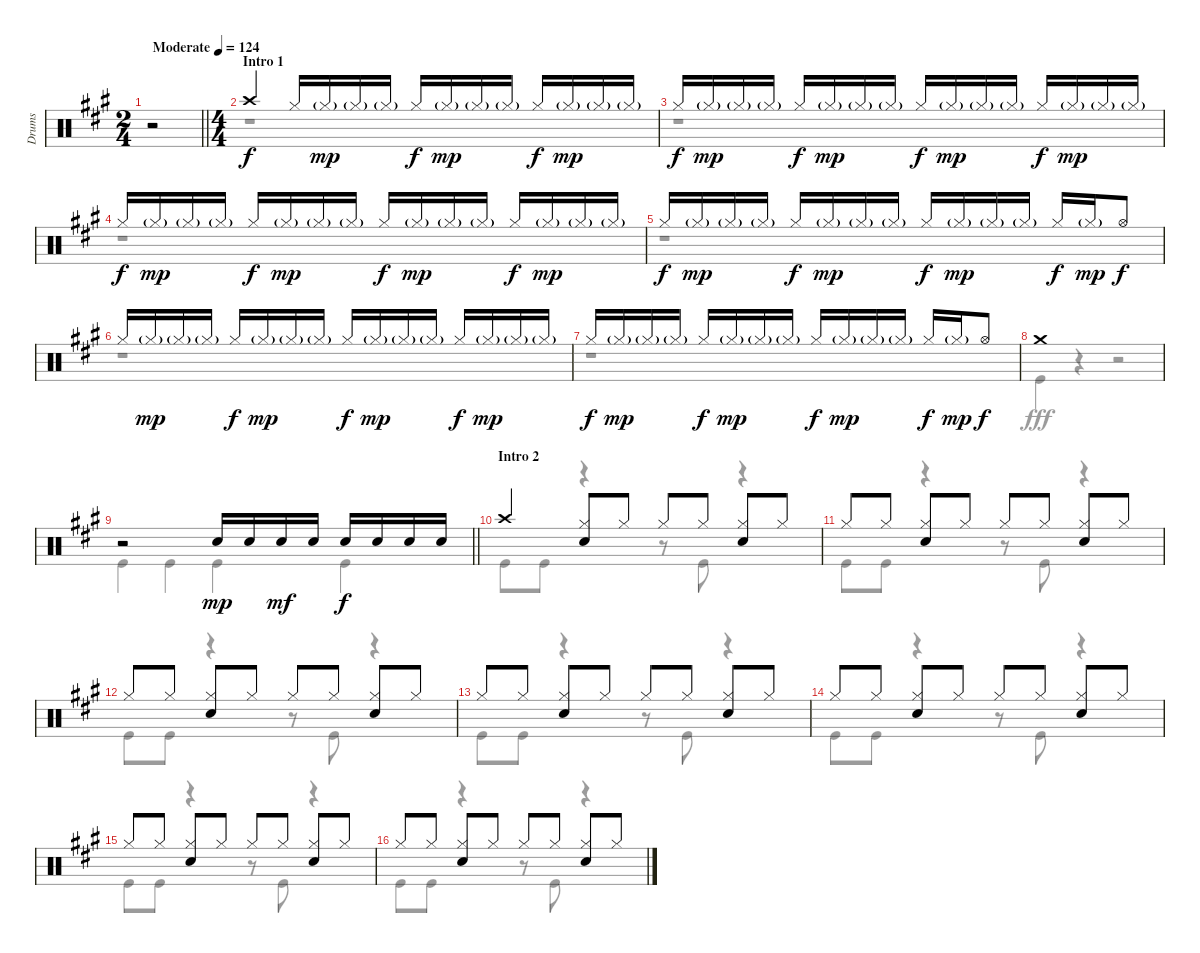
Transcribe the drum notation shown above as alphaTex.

\track ("Drums" "Drums") {instrument percussion}
\staff {score}
\articulation defaults
\voice
\ts (2 4)
\tempo (124 "Moderate")
\clef neutral
\barLineRight lightlight
\ks a
r.2{dy f} |
\ts (4 4)
\section ("" "Intro 1")
"Crash high (hit)".4 "Hi-Hat (closed)".16 "Hi-Hat (closed)"{g}.16{dy mp} "Hi-Hat (closed)"{g}.16 "Hi-Hat (closed)"{g}.16 "Hi-Hat (closed)".16{dy f} "Hi-Hat (closed)"{g}.16{dy mp} "Hi-Hat (closed)"{g}.16 "Hi-Hat (closed)"{g}.16 "Hi-Hat (closed)".16{dy f} "Hi-Hat (closed)"{g}.16{dy mp} "Hi-Hat (closed)"{g}.16 "Hi-Hat (closed)"{g}.16 |
"Hi-Hat (closed)".16{dy f} "Hi-Hat (closed)"{g}.16{dy mp} "Hi-Hat (closed)"{g}.16 "Hi-Hat (closed)"{g}.16 "Hi-Hat (closed)".16{dy f} "Hi-Hat (closed)"{g}.16{dy mp} "Hi-Hat (closed)"{g}.16 "Hi-Hat (closed)"{g}.16 "Hi-Hat (closed)".16{dy f} "Hi-Hat (closed)"{g}.16{dy mp} "Hi-Hat (closed)"{g}.16 "Hi-Hat (closed)"{g}.16 "Hi-Hat (closed)".16{dy f} "Hi-Hat (closed)"{g}.16{dy mp} "Hi-Hat (closed)"{g}.16 "Hi-Hat (closed)"{g}.16 |
"Hi-Hat (closed)".16{dy f} "Hi-Hat (closed)"{g}.16{dy mp} "Hi-Hat (closed)"{g}.16 "Hi-Hat (closed)"{g}.16 "Hi-Hat (closed)".16{dy f} "Hi-Hat (closed)"{g}.16{dy mp} "Hi-Hat (closed)"{g}.16 "Hi-Hat (closed)"{g}.16 "Hi-Hat (closed)".16{dy f} "Hi-Hat (closed)"{g}.16{dy mp} "Hi-Hat (closed)"{g}.16 "Hi-Hat (closed)"{g}.16 "Hi-Hat (closed)".16{dy f} "Hi-Hat (closed)"{g}.16{dy mp} "Hi-Hat (closed)"{g}.16 "Hi-Hat (closed)"{g}.16 |
"Hi-Hat (closed)".16{dy f} "Hi-Hat (closed)"{g}.16{dy mp} "Hi-Hat (closed)"{g}.16 "Hi-Hat (closed)"{g}.16 "Hi-Hat (closed)".16{dy f} "Hi-Hat (closed)"{g}.16{dy mp} "Hi-Hat (closed)"{g}.16 "Hi-Hat (closed)"{g}.16 "Hi-Hat (closed)".16{dy f} "Hi-Hat (closed)"{g}.16{dy mp} "Hi-Hat (closed)"{g}.16 "Hi-Hat (closed)"{g}.16 "Hi-Hat (closed)".16{dy f} "Hi-Hat (closed)"{g}.16{dy mp} "Hi-Hat (open)".8{dy f} |
"Hi-Hat (closed)".16 "Hi-Hat (closed)"{g}.16{dy mp} "Hi-Hat (closed)"{g}.16 "Hi-Hat (closed)"{g}.16 "Hi-Hat (closed)".16{dy f} "Hi-Hat (closed)"{g}.16{dy mp} "Hi-Hat (closed)"{g}.16 "Hi-Hat (closed)"{g}.16 "Hi-Hat (closed)".16{dy f} "Hi-Hat (closed)"{g}.16{dy mp} "Hi-Hat (closed)"{g}.16 "Hi-Hat (closed)"{g}.16 "Hi-Hat (closed)".16{dy f} "Hi-Hat (closed)"{g}.16{dy mp} "Hi-Hat (closed)"{g}.16 "Hi-Hat (closed)"{g}.16 |
"Hi-Hat (closed)".16{dy f} "Hi-Hat (closed)"{g}.16{dy mp} "Hi-Hat (closed)"{g}.16 "Hi-Hat (closed)"{g}.16 "Hi-Hat (closed)".16{dy f} "Hi-Hat (closed)"{g}.16{dy mp} "Hi-Hat (closed)"{g}.16 "Hi-Hat (closed)"{g}.16 "Hi-Hat (closed)".16{dy f} "Hi-Hat (closed)"{g}.16{dy mp} "Hi-Hat (closed)"{g}.16 "Hi-Hat (closed)"{g}.16 "Hi-Hat (closed)".16{dy f} "Hi-Hat (closed)"{g}.16{dy mp} "Hi-Hat (open)".8{dy f} |
"Crash medium (hit)".1 |
\barLineRight lightlight
r.2 "Snare (hit) 2".16{dy mp} "Snare (hit) 2".16 "Snare (hit) 2".16{dy mf} "Snare (hit) 2".16 "Snare (hit) 2".16{dy f} "Snare (hit) 2".16 "Snare (hit) 2".16 "Snare (hit) 2".16 |
\section ("" "Intro 2")
"Crash high (hit)".4 ("Hi-Hat (closed)" "Snare (hit) 2").8 "Hi-Hat (closed)".8 "Hi-Hat (closed)".8 "Hi-Hat (closed)".8 ("Hi-Hat (closed)" "Snare (hit) 2").8 "Hi-Hat (closed)".8 |
"Hi-Hat (closed)".8 "Hi-Hat (closed)".8 ("Hi-Hat (closed)" "Snare (hit) 2").8 "Hi-Hat (closed)".8 "Hi-Hat (closed)".8 "Hi-Hat (closed)".8 ("Hi-Hat (closed)" "Snare (hit) 2").8 "Hi-Hat (closed)".8 |
"Hi-Hat (closed)".8 "Hi-Hat (closed)".8 ("Hi-Hat (closed)" "Snare (hit) 2").8 "Hi-Hat (closed)".8 "Hi-Hat (closed)".8 "Hi-Hat (closed)".8 ("Hi-Hat (closed)" "Snare (hit) 2").8 "Hi-Hat (closed)".8 |
"Hi-Hat (closed)".8 "Hi-Hat (closed)".8 ("Hi-Hat (closed)" "Snare (hit) 2").8 "Hi-Hat (closed)".8 "Hi-Hat (closed)".8 "Hi-Hat (closed)".8 ("Hi-Hat (closed)" "Snare (hit) 2").8 "Hi-Hat (closed)".8 |
"Hi-Hat (closed)".8 "Hi-Hat (closed)".8 ("Hi-Hat (closed)" "Snare (hit) 2").8 "Hi-Hat (closed)".8 "Hi-Hat (closed)".8 "Hi-Hat (closed)".8 ("Hi-Hat (closed)" "Snare (hit) 2").8 "Hi-Hat (closed)".8 |
"Hi-Hat (closed)".8 "Hi-Hat (closed)".8 ("Hi-Hat (closed)" "Snare (hit) 2").8 "Hi-Hat (closed)".8 "Hi-Hat (closed)".8 "Hi-Hat (closed)".8 ("Hi-Hat (closed)" "Snare (hit) 2").8 "Hi-Hat (closed)".8 |
"Hi-Hat (closed)".8 "Hi-Hat (closed)".8 ("Hi-Hat (closed)" "Snare (hit) 2").8 "Hi-Hat (closed)".8 "Hi-Hat (closed)".8 "Hi-Hat (closed)".8 ("Hi-Hat (closed)" "Snare (hit) 2").8 "Hi-Hat (closed)".8
\voice
\clef neutral
\ottava regular
\simile none
\barLineRight lightlight
\ks a
r.2{dy fff} |
r.1 |
r.1 |
r.1 |
r.1 |
r.1 |
r.1 |
"Kick (hit)".4 r.4 r.2 |
\barLineRight lightlight "Kick (hit)".4 "Kick (hit)".4 "Kick (hit)".4 "Kick (hit)".4
|
"Kick (hit)".8 "Kick (hit)".8 r.4 r.8 "Kick (hit)".8 r.4 |
"Kick (hit)".8 "Kick (hit)".8 r.4 r.8 "Kick (hit)".8 r.4 |
"Kick (hit)".8 "Kick (hit)".8 r.4 r.8 "Kick (hit)".8 r.4 |
"Kick (hit)".8 "Kick (hit)".8 r.4 r.8 "Kick (hit)".8 r.4 |
"Kick (hit)".8 "Kick (hit)".8 r.4 r.8 "Kick (hit)".8 r.4 |
"Kick (hit)".8 "Kick (hit)".8 r.4 r.8 "Kick (hit)".8 r.4 |
"Kick (hit)".8 "Kick (hit)".8 r.4 r.8 "Kick (hit)".8 r.4
